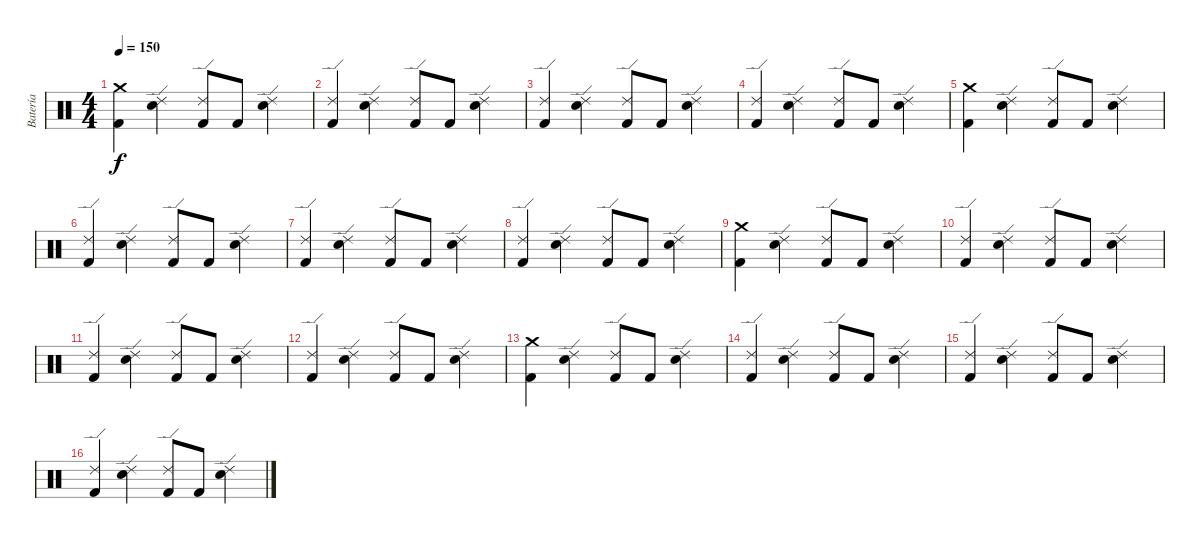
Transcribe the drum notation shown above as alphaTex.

\track ("Batería" "Batería") {instrument percussion}
\staff {score}
\articulation defaults
\ts (4 4)
\tempo 150
\clef neutral
\ks c
("Crash medium (hit)" "Kick (hit) 2").4{dy f} ("Ride (edge) 2" "Electric Snare (hit)").4 ("Ride (edge) 2" "Kick (hit) 2").8 "Kick (hit) 2".8 ("Ride (edge) 2" "Electric Snare (hit)").4 |
("Ride (edge) 2" "Kick (hit) 2").4 ("Ride (edge) 2" "Electric Snare (hit)").4 ("Ride (edge) 2" "Kick (hit) 2").8 "Kick (hit) 2".8 ("Ride (edge) 2" "Electric Snare (hit)").4 |
("Ride (edge) 2" "Kick (hit) 2").4 ("Ride (edge) 2" "Electric Snare (hit)").4 ("Ride (edge) 2" "Kick (hit) 2").8 "Kick (hit) 2".8 ("Ride (edge) 2" "Electric Snare (hit)").4 |
("Ride (edge) 2" "Kick (hit) 2").4 ("Ride (edge) 2" "Electric Snare (hit)").4 ("Ride (edge) 2" "Kick (hit) 2").8 "Kick (hit) 2".8 ("Ride (edge) 2" "Electric Snare (hit)").4 |
("Crash medium (hit)" "Kick (hit) 2").4 ("Ride (edge) 2" "Electric Snare (hit)").4 ("Ride (edge) 2" "Kick (hit) 2").8 "Kick (hit) 2".8 ("Ride (edge) 2" "Electric Snare (hit)").4 |
("Ride (edge) 2" "Kick (hit) 2").4 ("Ride (edge) 2" "Electric Snare (hit)").4 ("Ride (edge) 2" "Kick (hit) 2").8 "Kick (hit) 2".8 ("Ride (edge) 2" "Electric Snare (hit)").4 |
("Ride (edge) 2" "Kick (hit) 2").4 ("Ride (edge) 2" "Electric Snare (hit)").4 ("Ride (edge) 2" "Kick (hit) 2").8 "Kick (hit) 2".8 ("Ride (edge) 2" "Electric Snare (hit)").4 |
("Ride (edge) 2" "Kick (hit) 2").4 ("Ride (edge) 2" "Electric Snare (hit)").4 ("Ride (edge) 2" "Kick (hit) 2").8 "Kick (hit) 2".8 ("Ride (edge) 2" "Electric Snare (hit)").4 |
("Crash medium (hit)" "Kick (hit) 2").4 ("Ride (edge) 2" "Electric Snare (hit)").4 ("Ride (edge) 2" "Kick (hit) 2").8 "Kick (hit) 2".8 ("Ride (edge) 2" "Electric Snare (hit)").4 |
("Ride (edge) 2" "Kick (hit) 2").4 ("Ride (edge) 2" "Electric Snare (hit)").4 ("Ride (edge) 2" "Kick (hit) 2").8 "Kick (hit) 2".8 ("Ride (edge) 2" "Electric Snare (hit)").4 |
("Ride (edge) 2" "Kick (hit) 2").4 ("Ride (edge) 2" "Electric Snare (hit)").4 ("Ride (edge) 2" "Kick (hit) 2").8 "Kick (hit) 2".8 ("Ride (edge) 2" "Electric Snare (hit)").4 |
("Ride (edge) 2" "Kick (hit) 2").4 ("Ride (edge) 2" "Electric Snare (hit)").4 ("Ride (edge) 2" "Kick (hit) 2").8 "Kick (hit) 2".8 ("Ride (edge) 2" "Electric Snare (hit)").4 |
("Crash medium (hit)" "Kick (hit) 2").4 ("Ride (edge) 2" "Electric Snare (hit)").4 ("Ride (edge) 2" "Kick (hit) 2").8 "Kick (hit) 2".8 ("Ride (edge) 2" "Electric Snare (hit)").4 |
("Ride (edge) 2" "Kick (hit) 2").4 ("Ride (edge) 2" "Electric Snare (hit)").4 ("Ride (edge) 2" "Kick (hit) 2").8 "Kick (hit) 2".8 ("Ride (edge) 2" "Electric Snare (hit)").4 |
("Ride (edge) 2" "Kick (hit) 2").4 ("Ride (edge) 2" "Electric Snare (hit)").4 ("Ride (edge) 2" "Kick (hit) 2").8 "Kick (hit) 2".8 ("Ride (edge) 2" "Electric Snare (hit)").4 |
("Ride (edge) 2" "Kick (hit) 2").4 ("Ride (edge) 2" "Electric Snare (hit)").4 ("Ride (edge) 2" "Kick (hit) 2").8 "Kick (hit) 2".8 ("Ride (edge) 2" "Electric Snare (hit)").4
